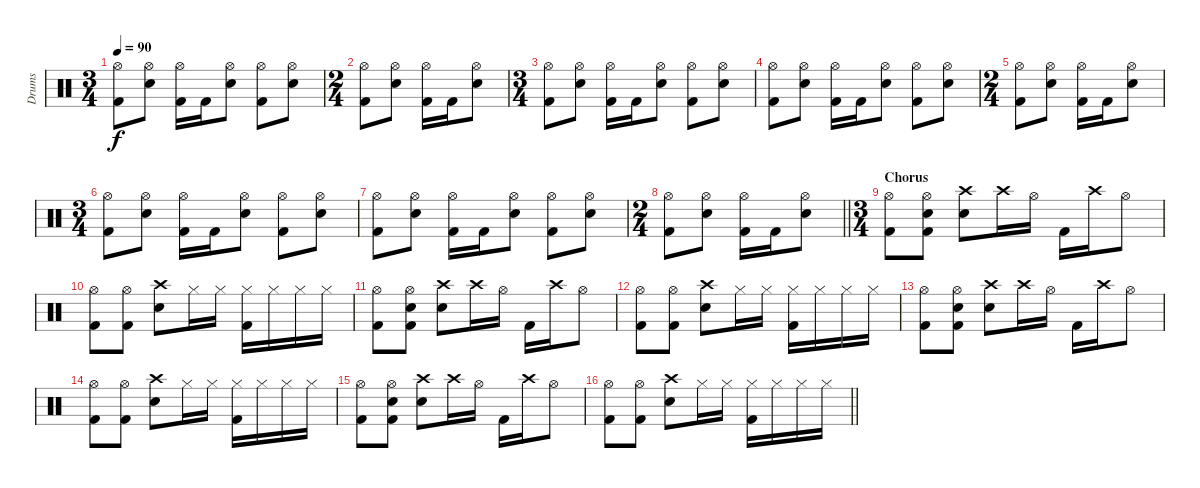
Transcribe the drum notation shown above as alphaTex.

\track ("Drums" "Drums") {instrument percussion}
\staff {score}
\articulation defaults
\ts (3 4)
\tempo 90
\clef neutral
\ks c
("Hi-Hat (open)" "Kick (hit) 2").8{dy f} ("Hi-Hat (open)" "Snare (hit) 2").8 ("Hi-Hat (open)" "Kick (hit) 2").16 "Kick (hit) 2".16 ("Hi-Hat (open)" "Snare (hit) 2").8 ("Hi-Hat (open)" "Kick (hit) 2").8 ("Hi-Hat (open)" "Snare (hit) 2").8 |
\ts (2 4)
("Hi-Hat (open)" "Kick (hit) 2").8 ("Hi-Hat (open)" "Snare (hit) 2").8 ("Hi-Hat (open)" "Kick (hit) 2").16 "Kick (hit) 2".16 ("Hi-Hat (open)" "Snare (hit) 2").8 |
\ts (3 4)
("Hi-Hat (open)" "Kick (hit) 2").8 ("Hi-Hat (open)" "Snare (hit) 2").8 ("Hi-Hat (open)" "Kick (hit) 2").16 "Kick (hit) 2".16 ("Hi-Hat (open)" "Snare (hit) 2").8 ("Hi-Hat (open)" "Kick (hit) 2").8 ("Hi-Hat (open)" "Snare (hit) 2").8 |
("Hi-Hat (open)" "Kick (hit) 2").8 ("Hi-Hat (open)" "Snare (hit) 2").8 ("Hi-Hat (open)" "Kick (hit) 2").16 "Kick (hit) 2".16 ("Hi-Hat (open)" "Snare (hit) 2").8 ("Hi-Hat (open)" "Kick (hit) 2").8 ("Hi-Hat (open)" "Snare (hit) 2").8 |
\ts (2 4)
("Hi-Hat (open)" "Kick (hit) 2").8 ("Hi-Hat (open)" "Snare (hit) 2").8 ("Hi-Hat (open)" "Kick (hit) 2").16 "Kick (hit) 2".16 ("Hi-Hat (open)" "Snare (hit) 2").8 |
\ts (3 4)
("Hi-Hat (open)" "Kick (hit) 2").8 ("Hi-Hat (open)" "Snare (hit) 2").8 ("Hi-Hat (open)" "Kick (hit) 2").16 "Kick (hit) 2".16 ("Hi-Hat (open)" "Snare (hit) 2").8 ("Hi-Hat (open)" "Kick (hit) 2").8 ("Hi-Hat (open)" "Snare (hit) 2").8 |
("Hi-Hat (open)" "Kick (hit) 2").8 ("Hi-Hat (open)" "Snare (hit) 2").8 ("Hi-Hat (open)" "Kick (hit) 2").16 "Kick (hit) 2".16 ("Hi-Hat (open)" "Snare (hit) 2").8 ("Hi-Hat (open)" "Kick (hit) 2").8 ("Hi-Hat (open)" "Snare (hit) 2").8 |
\ts (2 4)
\barLineRight lightlight
("Hi-Hat (open)" "Kick (hit) 2").8 ("Hi-Hat (open)" "Snare (hit) 2").8 ("Hi-Hat (open)" "Kick (hit) 2").16 "Kick (hit) 2".16 ("Hi-Hat (open)" "Snare (hit) 2").8 |
\ts (3 4)
\section ("" "Chorus")
("Hi-Hat (open)" "Kick (hit) 2").8 ("Hi-Hat (open)" "Snare (hit) 2" "Kick (hit) 2").8 ("Crash high (hit)" "Snare (hit) 2").8 "Crash high (hit)".16 "Hi-Hat (open)".16 "Kick (hit) 2".16 "Crash high (hit)".16 "Hi-Hat (open)".8 |
("Hi-Hat (open)" "Kick (hit) 2").8 ("Hi-Hat (open)" "Kick (hit) 2").8 ("Crash high (hit)" "Snare (hit) 2").8 "Hi-Hat (closed)".16 "Hi-Hat (closed)".16 ("Hi-Hat (closed)" "Kick (hit) 2").16 "Hi-Hat (closed)".16 "Hi-Hat (closed)".16 "Hi-Hat (closed)".16 |
("Hi-Hat (open)" "Kick (hit) 2").8 ("Hi-Hat (open)" "Snare (hit) 2" "Kick (hit) 2").8 ("Crash high (hit)" "Snare (hit) 2").8 "Crash high (hit)".16 "Hi-Hat (open)".16 "Kick (hit) 2".16 "Crash high (hit)".16 "Hi-Hat (open)".8 |
("Hi-Hat (open)" "Kick (hit) 2").8 ("Hi-Hat (open)" "Kick (hit) 2").8 ("Crash high (hit)" "Snare (hit) 2").8 "Hi-Hat (closed)".16 "Hi-Hat (closed)".16 ("Hi-Hat (closed)" "Kick (hit) 2").16 "Hi-Hat (closed)".16 "Hi-Hat (closed)".16 "Hi-Hat (closed)".16 |
("Hi-Hat (open)" "Kick (hit) 2").8 ("Hi-Hat (open)" "Snare (hit) 2" "Kick (hit) 2").8 ("Crash high (hit)" "Snare (hit) 2").8 "Crash high (hit)".16 "Hi-Hat (open)".16 "Kick (hit) 2".16 "Crash high (hit)".16 "Hi-Hat (open)".8 |
("Hi-Hat (open)" "Kick (hit) 2").8 ("Hi-Hat (open)" "Kick (hit) 2").8 ("Crash high (hit)" "Snare (hit) 2").8 "Hi-Hat (closed)".16 "Hi-Hat (closed)".16 ("Hi-Hat (closed)" "Kick (hit) 2").16 "Hi-Hat (closed)".16 "Hi-Hat (closed)".16 "Hi-Hat (closed)".16 |
("Hi-Hat (open)" "Kick (hit) 2").8 ("Hi-Hat (open)" "Snare (hit) 2" "Kick (hit) 2").8 ("Crash high (hit)" "Snare (hit) 2").8 "Crash high (hit)".16 "Hi-Hat (open)".16 "Kick (hit) 2".16 "Crash high (hit)".16 "Hi-Hat (open)".8 |
\barLineRight lightlight
("Hi-Hat (open)" "Kick (hit) 2").8 ("Hi-Hat (open)" "Kick (hit) 2").8 ("Crash high (hit)" "Snare (hit) 2").8 "Hi-Hat (closed)".16 "Hi-Hat (closed)".16 ("Hi-Hat (closed)" "Kick (hit) 2").16 "Hi-Hat (closed)".16 "Hi-Hat (closed)".16 "Hi-Hat (closed)".16
